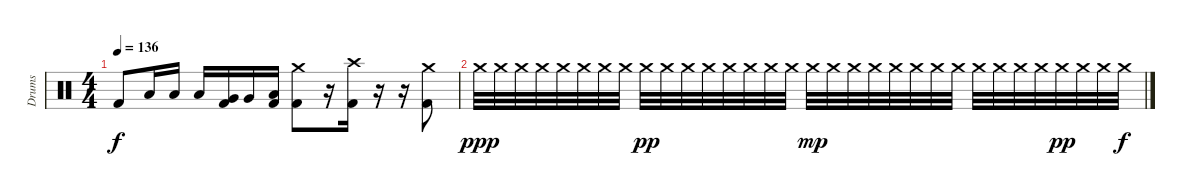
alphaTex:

\track ("Drums" "Drums") {instrument percussion}
\staff {score}
\articulation defaults
\ts (4 4)
\tempo 136
\clef neutral
\ks c "Kick (hit) 2".8{dy f} "Low Tom (hit)".16 "Low Tom (hit)".16 "Low Tom (hit)".16
("Very Low Tom (hit)" "Kick (hit) 2").16 "Very Low Tom (hit)".16 ("Low Floor Tom (hit)" "Kick (hit) 2").16 ("Crash medium (hit)" "Kick (hit) 2").8 r.16 ("Crash high (hit)" "Kick (hit) 2").16 r.16 r.16 ("Crash medium (hit)" "Kick (hit) 2").8 |
"Crash medium (hit)".32{dy ppp} "Crash medium (hit)".32 "Crash medium (hit)".32 "Crash medium (hit)".32 "Crash medium (hit)".32 "Crash medium (hit)".32 "Crash medium (hit)".32 "Crash medium (hit)".32 "Crash medium (hit)".32{dy pp} "Crash medium (hit)".32 "Crash medium (hit)".32 "Crash medium (hit)".32 "Crash medium (hit)".32 "Crash medium (hit)".32 "Crash medium (hit)".32 "Crash medium (hit)".32 "Crash medium (hit)".32{dy mp} "Crash medium (hit)".32 "Crash medium (hit)".32 "Crash medium (hit)".32 "Crash medium (hit)".32 "Crash medium (hit)".32 "Crash medium (hit)".32 "Crash medium (hit)".32 "Crash medium (hit)".32 "Crash medium (hit)".32 "Crash medium (hit)".32 "Crash medium (hit)".32 "Crash medium (hit)".32{dy pp} "Crash medium (hit)".32 "Crash medium (hit)".32 "Crash medium (hit)".32{dy f}
